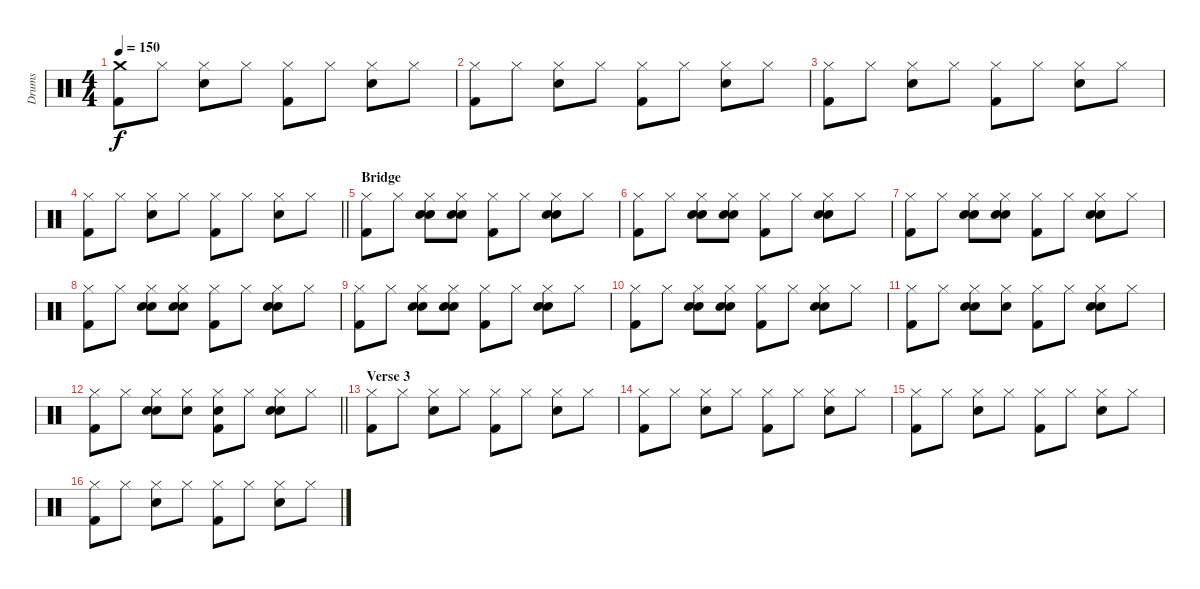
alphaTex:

\track ("Drums" "Drums") {instrument percussion}
\staff {score}
\articulation defaults
\ts (4 4)
\tempo 150
\clef neutral
\ks c
("Crash medium (hit)" "Kick (hit) 2").8{dy f} "Hi-Hat (closed)".8 ("Hi-Hat (closed)" "Snare (hit) 2").8 "Hi-Hat (closed)".8 ("Hi-Hat (closed)" "Kick (hit) 2").8 "Hi-Hat (closed)".8 ("Hi-Hat (closed)" "Snare (hit) 2").8 "Hi-Hat (closed)".8 |
("Hi-Hat (closed)" "Kick (hit) 2").8 "Hi-Hat (closed)".8 ("Hi-Hat (closed)" "Snare (hit) 2").8 "Hi-Hat (closed)".8 ("Hi-Hat (closed)" "Kick (hit) 2").8 "Hi-Hat (closed)".8 ("Hi-Hat (closed)" "Snare (hit) 2").8 "Hi-Hat (closed)".8 |
("Hi-Hat (closed)" "Kick (hit) 2").8 "Hi-Hat (closed)".8 ("Hi-Hat (closed)" "Snare (hit) 2").8 "Hi-Hat (closed)".8 ("Hi-Hat (closed)" "Kick (hit) 2").8 "Hi-Hat (closed)".8 ("Hi-Hat (closed)" "Snare (hit) 2").8 "Hi-Hat (closed)".8 |
\barLineRight lightlight
("Hi-Hat (closed)" "Kick (hit) 2").8 "Hi-Hat (closed)".8 ("Hi-Hat (closed)" "Snare (hit) 2").8 "Hi-Hat (closed)".8 ("Hi-Hat (closed)" "Kick (hit) 2").8 "Hi-Hat (closed)".8 ("Hi-Hat (closed)" "Snare (hit) 2").8 "Hi-Hat (closed)".8 |
\section ("" "Bridge")
("Hi-Hat (closed)" "Kick (hit) 2").8 "Hi-Hat (closed)".8 ("Hi-Hat (closed)" "Hand Clap (hit)" "Snare (hit) 2").8 ("Hi-Hat (closed)" "Hand Clap (hit)" "Snare (hit) 2").8 ("Hi-Hat (closed)" "Kick (hit) 2").8 "Hi-Hat (closed)".8 ("Hi-Hat (closed)" "Hand Clap (hit)" "Snare (hit) 2").8 "Hi-Hat (closed)".8 |
("Hi-Hat (closed)" "Kick (hit) 2").8 "Hi-Hat (closed)".8 ("Hi-Hat (closed)" "Hand Clap (hit)" "Snare (hit) 2").8 ("Hi-Hat (closed)" "Hand Clap (hit)" "Snare (hit) 2").8 ("Hi-Hat (closed)" "Kick (hit) 2").8 "Hi-Hat (closed)".8 ("Hi-Hat (closed)" "Hand Clap (hit)" "Snare (hit) 2").8 "Hi-Hat (closed)".8 |
("Hi-Hat (closed)" "Kick (hit) 2").8 "Hi-Hat (closed)".8 ("Hi-Hat (closed)" "Hand Clap (hit)" "Snare (hit) 2").8 ("Hi-Hat (closed)" "Hand Clap (hit)" "Snare (hit) 2").8 ("Hi-Hat (closed)" "Kick (hit) 2").8 "Hi-Hat (closed)".8 ("Hi-Hat (closed)" "Hand Clap (hit)" "Snare (hit) 2").8 "Hi-Hat (closed)".8 |
("Hi-Hat (closed)" "Kick (hit) 2").8 "Hi-Hat (closed)".8 ("Hi-Hat (closed)" "Hand Clap (hit)" "Snare (hit) 2").8 ("Hi-Hat (closed)" "Hand Clap (hit)" "Snare (hit) 2").8 ("Hi-Hat (closed)" "Kick (hit) 2").8 "Hi-Hat (closed)".8 ("Hi-Hat (closed)" "Hand Clap (hit)" "Snare (hit) 2").8 "Hi-Hat (closed)".8 |
("Hi-Hat (closed)" "Kick (hit) 2").8 "Hi-Hat (closed)".8 ("Hi-Hat (closed)" "Hand Clap (hit)" "Snare (hit) 2").8 ("Hi-Hat (closed)" "Hand Clap (hit)" "Snare (hit) 2").8 ("Hi-Hat (closed)" "Kick (hit) 2").8 "Hi-Hat (closed)".8 ("Hi-Hat (closed)" "Hand Clap (hit)" "Snare (hit) 2").8 "Hi-Hat (closed)".8 |
("Hi-Hat (closed)" "Kick (hit) 2").8 "Hi-Hat (closed)".8 ("Hi-Hat (closed)" "Hand Clap (hit)" "Snare (hit) 2").8 ("Hi-Hat (closed)" "Hand Clap (hit)" "Snare (hit) 2").8 ("Hi-Hat (closed)" "Kick (hit) 2").8 "Hi-Hat (closed)".8 ("Hi-Hat (closed)" "Hand Clap (hit)" "Snare (hit) 2").8 "Hi-Hat (closed)".8 |
("Hi-Hat (closed)" "Kick (hit) 2").8 "Hi-Hat (closed)".8 ("Hi-Hat (closed)" "Hand Clap (hit)" "Snare (hit) 2").8 ("Hi-Hat (closed)" "Hand Clap (hit)").8 ("Hi-Hat (closed)" "Kick (hit) 2").8 "Hi-Hat (closed)".8 ("Hi-Hat (closed)" "Hand Clap (hit)" "Snare (hit) 2").8 "Hi-Hat (closed)".8 |
\barLineRight lightlight
("Hi-Hat (closed)" "Kick (hit) 2").8 "Hi-Hat (closed)".8 ("Hi-Hat (closed)" "Hand Clap (hit)" "Snare (hit) 2").8 ("Hi-Hat (closed)" "Hand Clap (hit)").8 ("Hi-Hat (closed)" "Snare (hit) 2" "Kick (hit) 2").8 "Hi-Hat (closed)".8 ("Hi-Hat (closed)" "Hand Clap (hit)" "Snare (hit) 2").8 "Hi-Hat (closed)".8 |
\section ("" "Verse 3")
("Hi-Hat (closed)" "Kick (hit) 2").8 "Hi-Hat (closed)".8 ("Hi-Hat (closed)" "Snare (hit) 2").8 "Hi-Hat (closed)".8 ("Hi-Hat (closed)" "Kick (hit) 2").8 "Hi-Hat (closed)".8 ("Hi-Hat (closed)" "Snare (hit) 2").8 "Hi-Hat (closed)".8 |
("Hi-Hat (closed)" "Kick (hit) 2").8 "Hi-Hat (closed)".8 ("Hi-Hat (closed)" "Snare (hit) 2").8 "Hi-Hat (closed)".8 ("Hi-Hat (closed)" "Kick (hit) 2").8 "Hi-Hat (closed)".8 ("Hi-Hat (closed)" "Snare (hit) 2").8 "Hi-Hat (closed)".8 |
("Hi-Hat (closed)" "Kick (hit) 2").8 "Hi-Hat (closed)".8 ("Hi-Hat (closed)" "Snare (hit) 2").8 "Hi-Hat (closed)".8 ("Hi-Hat (closed)" "Kick (hit) 2").8 "Hi-Hat (closed)".8 ("Hi-Hat (closed)" "Snare (hit) 2").8 "Hi-Hat (closed)".8 |
("Hi-Hat (closed)" "Kick (hit) 2").8 "Hi-Hat (closed)".8 ("Hi-Hat (closed)" "Snare (hit) 2").8 "Hi-Hat (closed)".8 ("Hi-Hat (closed)" "Kick (hit) 2").8 "Hi-Hat (closed)".8 ("Hi-Hat (closed)" "Snare (hit) 2").8 "Hi-Hat (closed)".8
